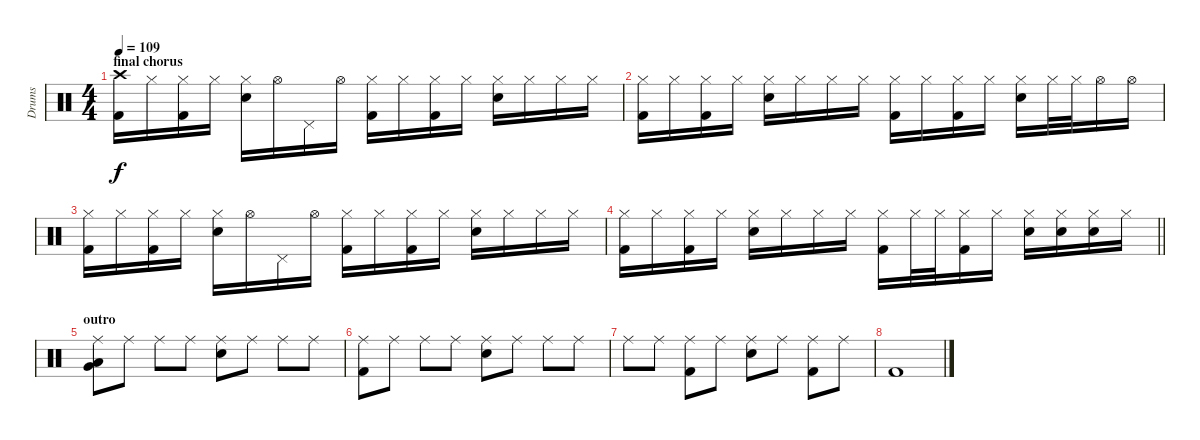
\track ("Drums" "Drums") {instrument percussion}
\staff {score}
\articulation defaults
\ts (4 4)
\section ("" "final chorus")
\tempo 109
\clef neutral
\ks c
("Crash high (hit)" "Kick (hit) 2").16{dy f} "Hi-Hat (closed)".16 ("Hi-Hat (closed)" "Kick (hit) 2").16 "Hi-Hat (closed)".16 ("Hi-Hat (closed)" "Electric Snare (hit)").16 "Hi-Hat (open)".16 "Pedal Hi-Hat (hit)".16 "Hi-Hat (open)".16 ("Hi-Hat (closed)" "Kick (hit) 2").16 "Hi-Hat (closed)".16 ("Hi-Hat (closed)" "Kick (hit) 2").16 "Hi-Hat (closed)".16 ("Hi-Hat (closed)" "Electric Snare (hit)").16 "Hi-Hat (closed)".16 "Hi-Hat (closed)".16 "Hi-Hat (closed)".16 |
("Hi-Hat (closed)" "Kick (hit) 2").16 "Hi-Hat (closed)".16 ("Hi-Hat (closed)" "Kick (hit) 2").16 "Hi-Hat (closed)".16 ("Hi-Hat (closed)" "Electric Snare (hit)").16 "Hi-Hat (closed)".16 "Hi-Hat (closed)".16 "Hi-Hat (closed)".16 ("Hi-Hat (closed)" "Kick (hit) 2").16 "Hi-Hat (closed)".16 ("Hi-Hat (closed)" "Kick (hit) 2").16 "Hi-Hat (closed)".16 ("Hi-Hat (closed)" "Electric Snare (hit)").16 "Hi-Hat (closed)".32 "Hi-Hat (closed)".32 "Hi-Hat (open)".16 "Hi-Hat (open)".16 |
("Hi-Hat (closed)" "Kick (hit) 2").16 "Hi-Hat (closed)".16 ("Hi-Hat (closed)" "Kick (hit) 2").16 "Hi-Hat (closed)".16 ("Hi-Hat (closed)" "Electric Snare (hit)").16 "Hi-Hat (open)".16 "Pedal Hi-Hat (hit)".16 "Hi-Hat (open)".16 ("Hi-Hat (closed)" "Kick (hit) 2").16 "Hi-Hat (closed)".16 ("Hi-Hat (closed)" "Kick (hit) 2").16 "Hi-Hat (closed)".16 ("Hi-Hat (closed)" "Electric Snare (hit)").16 "Hi-Hat (closed)".16 "Hi-Hat (closed)".16 "Hi-Hat (closed)".16 |
\barLineRight lightlight
("Hi-Hat (closed)" "Kick (hit) 2").16 "Hi-Hat (closed)".16 ("Hi-Hat (closed)" "Kick (hit) 2").16 "Hi-Hat (closed)".16 ("Hi-Hat (closed)" "Electric Snare (hit)").16 "Hi-Hat (closed)".16 "Hi-Hat (closed)".16 "Hi-Hat (closed)".16 ("Hi-Hat (closed)" "Kick (hit) 2").16 "Hi-Hat (closed)".32 "Hi-Hat (closed)".32 ("Hi-Hat (closed)" "Kick (hit) 2").16 "Hi-Hat (closed)".16 ("Hi-Hat (closed)" "Electric Snare (hit)").16 ("Hi-Hat (closed)" "Electric Snare (hit)").16 ("Hi-Hat (closed)" "Electric Snare (hit)").16 "Hi-Hat (closed)".16 |
\section ("" "outro")
("Ride (middle)" "Very Low Tom (hit)" "Low Floor Tom (hit)").8 "Ride (middle)".8 "Ride (middle)".8 "Ride (middle)".8 ("Ride (middle)" "Electric Snare (hit)").8 "Ride (middle)".8 "Ride (middle)".8 "Ride (middle)".8 |
("Ride (middle)" "Kick (hit) 2").8 "Ride (middle)".8 "Ride (middle)".8 "Ride (middle)".8 ("Ride (middle)" "Electric Snare (hit)").8 "Ride (middle)".8 "Ride (middle)".8 "Ride (middle)".8 |
"Ride (middle)".8 "Ride (middle)".8 ("Ride (middle)" "Kick (hit) 2").8 "Ride (middle)".8 ("Ride (middle)" "Electric Snare (hit)").8 "Ride (middle)".8 ("Ride (middle)" "Kick (hit) 2").8 "Ride (middle)".8 |
"Kick (hit) 2".1
